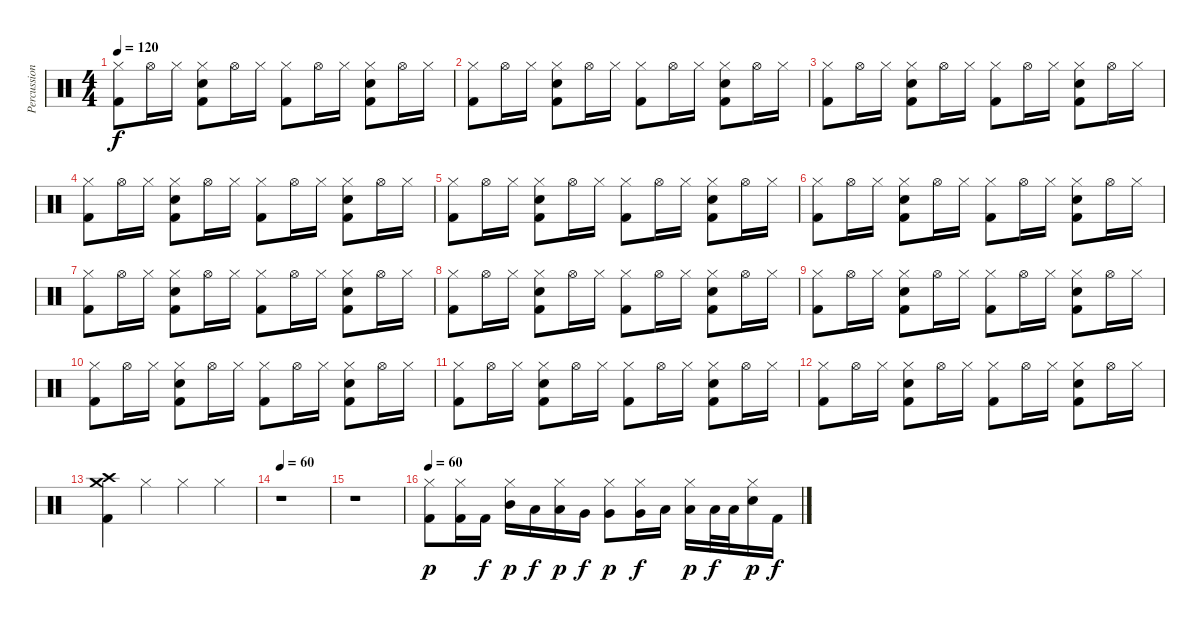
\track ("Percussion" "Percussion") {instrument percussion}
\staff {score}
\articulation defaults
\ts (4 4)
\tempo 120
\clef neutral
\ks c
("Hi-Hat (closed)" "Kick (hit) 2").8{dy f} "Hi-Hat (open)".16 "Hi-Hat (closed)".16 ("Hi-Hat (closed)" "Snare (hit) 2" "Kick (hit) 2").8 "Hi-Hat (open)".16 "Hi-Hat (closed)".16 ("Hi-Hat (closed)" "Kick (hit) 2").8 "Hi-Hat (open)".16 "Hi-Hat (closed)".16 ("Hi-Hat (closed)" "Snare (hit) 2" "Kick (hit) 2").8 "Hi-Hat (open)".16 "Hi-Hat (closed)".16 |
("Hi-Hat (closed)" "Kick (hit) 2").8 "Hi-Hat (open)".16 "Hi-Hat (closed)".16 ("Hi-Hat (closed)" "Snare (hit) 2" "Kick (hit) 2").8 "Hi-Hat (open)".16 "Hi-Hat (closed)".16 ("Hi-Hat (closed)" "Kick (hit) 2").8 "Hi-Hat (open)".16 "Hi-Hat (closed)".16 ("Hi-Hat (closed)" "Snare (hit) 2" "Kick (hit) 2").8 "Hi-Hat (open)".16 "Hi-Hat (closed)".16 |
("Hi-Hat (closed)" "Kick (hit) 2").8 "Hi-Hat (open)".16 "Hi-Hat (closed)".16 ("Hi-Hat (closed)" "Snare (hit) 2" "Kick (hit) 2").8 "Hi-Hat (open)".16 "Hi-Hat (closed)".16 ("Hi-Hat (closed)" "Kick (hit) 2").8 "Hi-Hat (open)".16 "Hi-Hat (closed)".16 ("Hi-Hat (closed)" "Snare (hit) 2" "Kick (hit) 2").8 "Hi-Hat (open)".16 "Hi-Hat (closed)".16 |
("Hi-Hat (closed)" "Kick (hit) 2").8 "Hi-Hat (open)".16 "Hi-Hat (closed)".16 ("Hi-Hat (closed)" "Snare (hit) 2" "Kick (hit) 2").8 "Hi-Hat (open)".16 "Hi-Hat (closed)".16 ("Hi-Hat (closed)" "Kick (hit) 2").8 "Hi-Hat (open)".16 "Hi-Hat (closed)".16 ("Hi-Hat (closed)" "Snare (hit) 2" "Kick (hit) 2").8 "Hi-Hat (open)".16 "Hi-Hat (closed)".16 |
("Hi-Hat (closed)" "Kick (hit) 2").8 "Hi-Hat (open)".16 "Hi-Hat (closed)".16 ("Hi-Hat (closed)" "Snare (hit) 2" "Kick (hit) 2").8 "Hi-Hat (open)".16 "Hi-Hat (closed)".16 ("Hi-Hat (closed)" "Kick (hit) 2").8 "Hi-Hat (open)".16 "Hi-Hat (closed)".16 ("Hi-Hat (closed)" "Snare (hit) 2" "Kick (hit) 2").8 "Hi-Hat (open)".16 "Hi-Hat (closed)".16 |
("Hi-Hat (closed)" "Kick (hit) 2").8 "Hi-Hat (open)".16 "Hi-Hat (closed)".16 ("Hi-Hat (closed)" "Snare (hit) 2" "Kick (hit) 2").8 "Hi-Hat (open)".16 "Hi-Hat (closed)".16 ("Hi-Hat (closed)" "Kick (hit) 2").8 "Hi-Hat (open)".16 "Hi-Hat (closed)".16 ("Hi-Hat (closed)" "Snare (hit) 2" "Kick (hit) 2").8 "Hi-Hat (open)".16 "Hi-Hat (closed)".16 |
("Hi-Hat (closed)" "Kick (hit) 2").8 "Hi-Hat (open)".16 "Hi-Hat (closed)".16 ("Hi-Hat (closed)" "Snare (hit) 2" "Kick (hit) 2").8 "Hi-Hat (open)".16 "Hi-Hat (closed)".16 ("Hi-Hat (closed)" "Kick (hit) 2").8 "Hi-Hat (open)".16 "Hi-Hat (closed)".16 ("Hi-Hat (closed)" "Snare (hit) 2" "Kick (hit) 2").8 "Hi-Hat (open)".16 "Hi-Hat (closed)".16 |
("Hi-Hat (closed)" "Kick (hit) 2").8 "Hi-Hat (open)".16 "Hi-Hat (closed)".16 ("Hi-Hat (closed)" "Snare (hit) 2" "Kick (hit) 2").8 "Hi-Hat (open)".16 "Hi-Hat (closed)".16 ("Hi-Hat (closed)" "Kick (hit) 2").8 "Hi-Hat (open)".16 "Hi-Hat (closed)".16 ("Hi-Hat (closed)" "Snare (hit) 2" "Kick (hit) 2").8 "Hi-Hat (open)".16 "Hi-Hat (closed)".16 |
("Hi-Hat (closed)" "Kick (hit) 2").8 "Hi-Hat (open)".16 "Hi-Hat (closed)".16 ("Hi-Hat (closed)" "Snare (hit) 2" "Kick (hit) 2").8 "Hi-Hat (open)".16 "Hi-Hat (closed)".16 ("Hi-Hat (closed)" "Kick (hit) 2").8 "Hi-Hat (open)".16 "Hi-Hat (closed)".16 ("Hi-Hat (closed)" "Snare (hit) 2" "Kick (hit) 2").8 "Hi-Hat (open)".16 "Hi-Hat (closed)".16 |
("Hi-Hat (closed)" "Kick (hit) 2").8 "Hi-Hat (open)".16 "Hi-Hat (closed)".16 ("Hi-Hat (closed)" "Snare (hit) 2" "Kick (hit) 2").8 "Hi-Hat (open)".16 "Hi-Hat (closed)".16 ("Hi-Hat (closed)" "Kick (hit) 2").8 "Hi-Hat (open)".16 "Hi-Hat (closed)".16 ("Hi-Hat (closed)" "Snare (hit) 2" "Kick (hit) 2").8 "Hi-Hat (open)".16 "Hi-Hat (closed)".16 |
("Hi-Hat (closed)" "Kick (hit) 2").8 "Hi-Hat (open)".16 "Hi-Hat (closed)".16 ("Hi-Hat (closed)" "Snare (hit) 2" "Kick (hit) 2").8 "Hi-Hat (open)".16 "Hi-Hat (closed)".16 ("Hi-Hat (closed)" "Kick (hit) 2").8 "Hi-Hat (open)".16 "Hi-Hat (closed)".16 ("Hi-Hat (closed)" "Snare (hit) 2" "Kick (hit) 2").8 "Hi-Hat (open)".16 "Hi-Hat (closed)".16 |
("Hi-Hat (closed)" "Kick (hit) 2").8 "Hi-Hat (open)".16 "Hi-Hat (closed)".16 ("Hi-Hat (closed)" "Snare (hit) 2" "Kick (hit) 2").8 "Hi-Hat (open)".16 "Hi-Hat (closed)".16 ("Hi-Hat (closed)" "Kick (hit) 2").8 "Hi-Hat (open)".16 "Hi-Hat (closed)".16 ("Hi-Hat (closed)" "Snare (hit) 2" "Kick (hit) 2").8 "Hi-Hat (open)".16 "Hi-Hat (closed)".16 |
("Crash medium (hit)" "Crash high (hit)" "Kick (hit) 2").4 "Hi-Hat (closed)".4 "Hi-Hat (closed)".4 "Hi-Hat (closed)".4 |
\tempo 60
r.1 |
r.1 |
\tempo 60
("Hi-Hat (closed)" "Kick (hit) 2").8{dy p} ("Hi-Hat (closed)" "Kick (hit) 2").16 "Kick (hit) 2".16{dy f} ("Hi-Hat (closed)" "Mid Tom (hit)").16{dy p} "Low Tom (hit)".16{dy f} ("Hi-Hat (closed)" "Low Tom (hit)").16{dy p} "Very Low Tom (hit)".16{dy f} ("Hi-Hat (closed)" "Very Low Tom (hit)").8{dy p} ("Hi-Hat (closed)" "Very Low Tom (hit)").16{dy f} "Low Tom (hit)".16 ("Hi-Hat (closed)" "Low Floor Tom (hit)").16{dy p} "Low Floor Tom (hit)".32{dy f} "Low Floor Tom (hit)".32 ("Hi-Hat (closed)" "Snare (hit) 2").16{dy p} "Kick (hit) 2".16{dy f}
